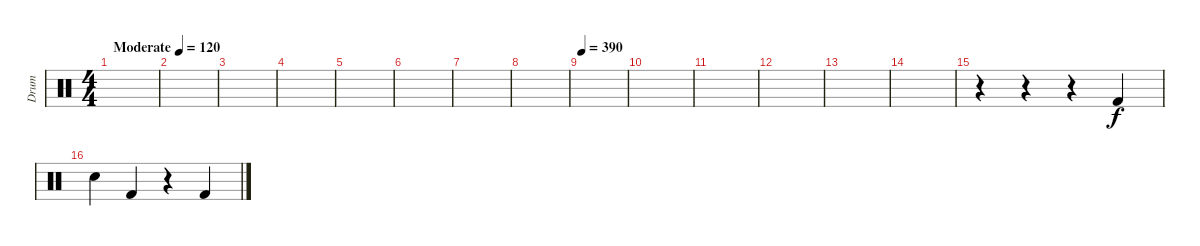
\track ("Drum" "Drum") {instrument percussion}
\staff {score}
\articulation defaults
\ts (4 4)
\tempo (120 "Moderate")
\tempo 390
\tempo (120 "Moderate")
\clef neutral
\ks c
|
|
|
|
|
|
|
|
\tempo 390
|
|
|
|
|
|
r.4 r.4 r.4 "Kick (hit) 2".4 |
"Electric Snare (hit)".4 "Kick (hit) 2".4 r.4 "Kick (hit) 2".4
